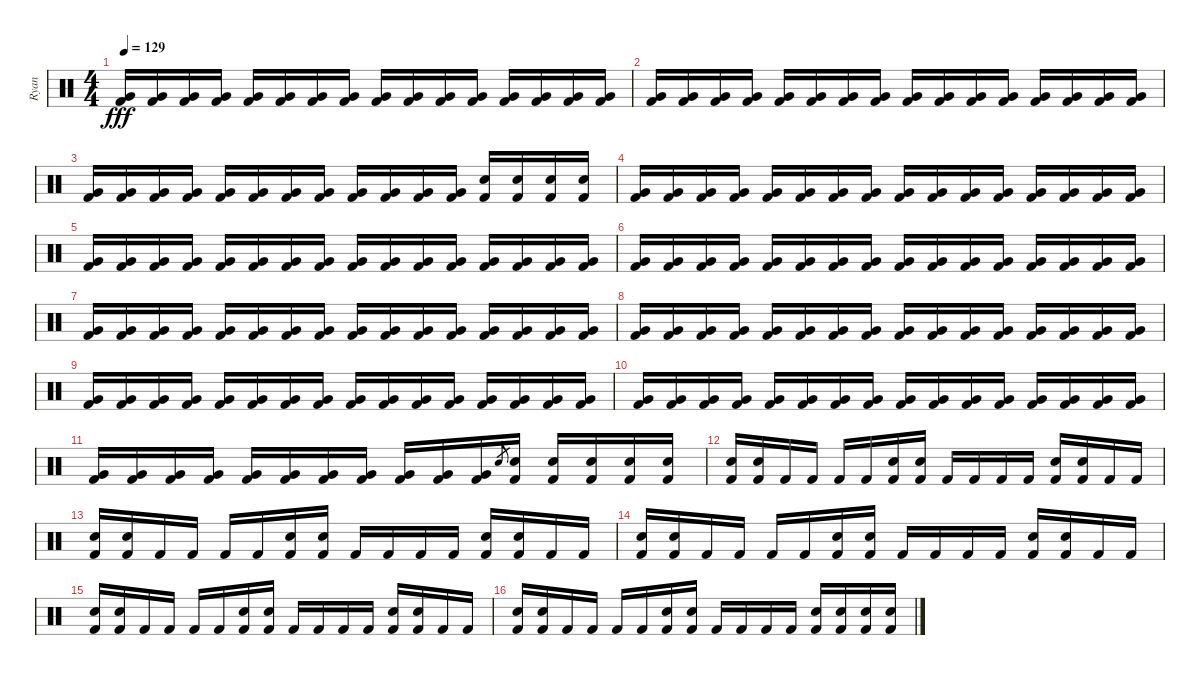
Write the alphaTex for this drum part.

\track ("Ryan" "Ryan") {instrument percussion}
\staff {score}
\articulation defaults
\ts (4 4)
\tempo 129
\clef neutral
\ks c
("Very Low Tom (hit)" "Kick (hit) 2").16{dy fff} ("Very Low Tom (hit)" "Kick (hit) 2").16 ("Very Low Tom (hit)" "Kick (hit) 2").16 ("Very Low Tom (hit)" "Kick (hit) 2").16 ("Very Low Tom (hit)" "Kick (hit) 2").16 ("Very Low Tom (hit)" "Kick (hit) 2").16 ("Very Low Tom (hit)" "Kick (hit) 2").16 ("Very Low Tom (hit)" "Kick (hit) 2").16 ("Very Low Tom (hit)" "Kick (hit) 2").16 ("Very Low Tom (hit)" "Kick (hit) 2").16 ("Very Low Tom (hit)" "Kick (hit) 2").16 ("Very Low Tom (hit)" "Kick (hit) 2").16 ("Very Low Tom (hit)" "Kick (hit) 2").16 ("Very Low Tom (hit)" "Kick (hit) 2").16 ("Very Low Tom (hit)" "Kick (hit) 2").16 ("Very Low Tom (hit)" "Kick (hit) 2").16 |
("Very Low Tom (hit)" "Kick (hit) 2").16 ("Very Low Tom (hit)" "Kick (hit) 2").16 ("Very Low Tom (hit)" "Kick (hit) 2").16 ("Very Low Tom (hit)" "Kick (hit) 2").16 ("Very Low Tom (hit)" "Kick (hit) 2").16 ("Very Low Tom (hit)" "Kick (hit) 2").16 ("Very Low Tom (hit)" "Kick (hit) 2").16 ("Very Low Tom (hit)" "Kick (hit) 2").16 ("Very Low Tom (hit)" "Kick (hit) 2").16 ("Very Low Tom (hit)" "Kick (hit) 2").16 ("Very Low Tom (hit)" "Kick (hit) 2").16 ("Very Low Tom (hit)" "Kick (hit) 2").16 ("Very Low Tom (hit)" "Kick (hit) 2").16 ("Very Low Tom (hit)" "Kick (hit) 2").16 ("Very Low Tom (hit)" "Kick (hit) 2").16 ("Very Low Tom (hit)" "Kick (hit) 2").16 |
("Very Low Tom (hit)" "Kick (hit) 2").16 ("Very Low Tom (hit)" "Kick (hit) 2").16 ("Very Low Tom (hit)" "Kick (hit) 2").16 ("Very Low Tom (hit)" "Kick (hit) 2").16 ("Very Low Tom (hit)" "Kick (hit) 2").16 ("Very Low Tom (hit)" "Kick (hit) 2").16 ("Very Low Tom (hit)" "Kick (hit) 2").16 ("Very Low Tom (hit)" "Kick (hit) 2").16 ("Very Low Tom (hit)" "Kick (hit) 2").16 ("Very Low Tom (hit)" "Kick (hit) 2").16 ("Very Low Tom (hit)" "Kick (hit) 2").16 ("Very Low Tom (hit)" "Kick (hit) 2").16 ("Electric Snare (hit)" "Kick (hit) 2").16 ("Electric Snare (hit)" "Kick (hit) 2").16 ("Electric Snare (hit)" "Kick (hit) 2").16 ("Electric Snare (hit)" "Kick (hit) 2").16 |
("Very Low Tom (hit)" "Kick (hit) 2").16 ("Very Low Tom (hit)" "Kick (hit) 2").16 ("Very Low Tom (hit)" "Kick (hit) 2").16 ("Very Low Tom (hit)" "Kick (hit) 2").16 ("Very Low Tom (hit)" "Kick (hit) 2").16 ("Very Low Tom (hit)" "Kick (hit) 2").16 ("Very Low Tom (hit)" "Kick (hit) 2").16 ("Very Low Tom (hit)" "Kick (hit) 2").16 ("Very Low Tom (hit)" "Kick (hit) 2").16 ("Very Low Tom (hit)" "Kick (hit) 2").16 ("Very Low Tom (hit)" "Kick (hit) 2").16 ("Very Low Tom (hit)" "Kick (hit) 2").16 ("Very Low Tom (hit)" "Kick (hit) 2").16 ("Very Low Tom (hit)" "Kick (hit) 2").16 ("Very Low Tom (hit)" "Kick (hit) 2").16 ("Very Low Tom (hit)" "Kick (hit) 2").16 |
("Very Low Tom (hit)" "Kick (hit) 2").16 ("Very Low Tom (hit)" "Kick (hit) 2").16 ("Very Low Tom (hit)" "Kick (hit) 2").16 ("Very Low Tom (hit)" "Kick (hit) 2").16 ("Very Low Tom (hit)" "Kick (hit) 2").16 ("Very Low Tom (hit)" "Kick (hit) 2").16 ("Very Low Tom (hit)" "Kick (hit) 2").16 ("Very Low Tom (hit)" "Kick (hit) 2").16 ("Very Low Tom (hit)" "Kick (hit) 2").16 ("Very Low Tom (hit)" "Kick (hit) 2").16 ("Very Low Tom (hit)" "Kick (hit) 2").16 ("Very Low Tom (hit)" "Kick (hit) 2").16 ("Very Low Tom (hit)" "Kick (hit) 2").16 ("Very Low Tom (hit)" "Kick (hit) 2").16 ("Very Low Tom (hit)" "Kick (hit) 2").16 ("Very Low Tom (hit)" "Kick (hit) 2").16 |
("Very Low Tom (hit)" "Kick (hit) 2").16 ("Very Low Tom (hit)" "Kick (hit) 2").16 ("Very Low Tom (hit)" "Kick (hit) 2").16 ("Very Low Tom (hit)" "Kick (hit) 2").16 ("Very Low Tom (hit)" "Kick (hit) 2").16 ("Very Low Tom (hit)" "Kick (hit) 2").16 ("Very Low Tom (hit)" "Kick (hit) 2").16 ("Very Low Tom (hit)" "Kick (hit) 2").16 ("Very Low Tom (hit)" "Kick (hit) 2").16 ("Very Low Tom (hit)" "Kick (hit) 2").16 ("Very Low Tom (hit)" "Kick (hit) 2").16 ("Very Low Tom (hit)" "Kick (hit) 2").16 ("Very Low Tom (hit)" "Kick (hit) 2").16 ("Very Low Tom (hit)" "Kick (hit) 2").16 ("Very Low Tom (hit)" "Kick (hit) 2").16 ("Very Low Tom (hit)" "Kick (hit) 2").16 |
("Very Low Tom (hit)" "Kick (hit) 2").16 ("Very Low Tom (hit)" "Kick (hit) 2").16 ("Very Low Tom (hit)" "Kick (hit) 2").16 ("Very Low Tom (hit)" "Kick (hit) 2").16 ("Very Low Tom (hit)" "Kick (hit) 2").16 ("Very Low Tom (hit)" "Kick (hit) 2").16 ("Very Low Tom (hit)" "Kick (hit) 2").16 ("Very Low Tom (hit)" "Kick (hit) 2").16 ("Very Low Tom (hit)" "Kick (hit) 2").16 ("Very Low Tom (hit)" "Kick (hit) 2").16 ("Very Low Tom (hit)" "Kick (hit) 2").16 ("Very Low Tom (hit)" "Kick (hit) 2").16 ("Very Low Tom (hit)" "Kick (hit) 2").16 ("Very Low Tom (hit)" "Kick (hit) 2").16 ("Very Low Tom (hit)" "Kick (hit) 2").16 ("Very Low Tom (hit)" "Kick (hit) 2").16 |
("Very Low Tom (hit)" "Kick (hit) 2").16 ("Very Low Tom (hit)" "Kick (hit) 2").16 ("Very Low Tom (hit)" "Kick (hit) 2").16 ("Very Low Tom (hit)" "Kick (hit) 2").16 ("Very Low Tom (hit)" "Kick (hit) 2").16 ("Very Low Tom (hit)" "Kick (hit) 2").16 ("Very Low Tom (hit)" "Kick (hit) 2").16 ("Very Low Tom (hit)" "Kick (hit) 2").16 ("Very Low Tom (hit)" "Kick (hit) 2").16 ("Very Low Tom (hit)" "Kick (hit) 2").16 ("Very Low Tom (hit)" "Kick (hit) 2").16 ("Very Low Tom (hit)" "Kick (hit) 2").16 ("Very Low Tom (hit)" "Kick (hit) 2").16 ("Very Low Tom (hit)" "Kick (hit) 2").16 ("Very Low Tom (hit)" "Kick (hit) 2").16 ("Very Low Tom (hit)" "Kick (hit) 2").16 |
("Very Low Tom (hit)" "Kick (hit) 2").16 ("Very Low Tom (hit)" "Kick (hit) 2").16 ("Very Low Tom (hit)" "Kick (hit) 2").16 ("Very Low Tom (hit)" "Kick (hit) 2").16 ("Very Low Tom (hit)" "Kick (hit) 2").16 ("Very Low Tom (hit)" "Kick (hit) 2").16 ("Very Low Tom (hit)" "Kick (hit) 2").16 ("Very Low Tom (hit)" "Kick (hit) 2").16 ("Very Low Tom (hit)" "Kick (hit) 2").16 ("Very Low Tom (hit)" "Kick (hit) 2").16 ("Very Low Tom (hit)" "Kick (hit) 2").16 ("Very Low Tom (hit)" "Kick (hit) 2").16 ("Very Low Tom (hit)" "Kick (hit) 2").16 ("Very Low Tom (hit)" "Kick (hit) 2").16 ("Very Low Tom (hit)" "Kick (hit) 2").16 ("Very Low Tom (hit)" "Kick (hit) 2").16 |
("Very Low Tom (hit)" "Kick (hit) 2").16 ("Very Low Tom (hit)" "Kick (hit) 2").16 ("Very Low Tom (hit)" "Kick (hit) 2").16 ("Very Low Tom (hit)" "Kick (hit) 2").16 ("Very Low Tom (hit)" "Kick (hit) 2").16 ("Very Low Tom (hit)" "Kick (hit) 2").16 ("Very Low Tom (hit)" "Kick (hit) 2").16 ("Very Low Tom (hit)" "Kick (hit) 2").16 ("Very Low Tom (hit)" "Kick (hit) 2").16 ("Very Low Tom (hit)" "Kick (hit) 2").16 ("Very Low Tom (hit)" "Kick (hit) 2").16 ("Very Low Tom (hit)" "Kick (hit) 2").16 ("Very Low Tom (hit)" "Kick (hit) 2").16 ("Very Low Tom (hit)" "Kick (hit) 2").16 ("Very Low Tom (hit)" "Kick (hit) 2").16 ("Very Low Tom (hit)" "Kick (hit) 2").16 |
("Very Low Tom (hit)" "Kick (hit) 2").16 ("Very Low Tom (hit)" "Kick (hit) 2").16 ("Very Low Tom (hit)" "Kick (hit) 2").16 ("Very Low Tom (hit)" "Kick (hit) 2").16 ("Very Low Tom (hit)" "Kick (hit) 2").16 ("Very Low Tom (hit)" "Kick (hit) 2").16 ("Very Low Tom (hit)" "Kick (hit) 2").16 ("Very Low Tom (hit)" "Kick (hit) 2").16 ("Very Low Tom (hit)" "Kick (hit) 2").16 ("Very Low Tom (hit)" "Kick (hit) 2").16 ("Very Low Tom (hit)" "Kick (hit) 2").16 "Electric Snare (hit)".8{gr} ("Electric Snare (hit)" "Kick (hit) 2").16 ("Electric Snare (hit)" "Kick (hit) 2").16 ("Electric Snare (hit)" "Kick (hit) 2").16 ("Electric Snare (hit)" "Kick (hit) 2").16 ("Electric Snare (hit)" "Kick (hit) 2").16 |
("Electric Snare (hit)" "Kick (hit) 2").16 ("Electric Snare (hit)" "Kick (hit) 2").16 "Kick (hit) 2".16 "Kick (hit) 2".16 "Kick (hit) 2".16 "Kick (hit) 2".16 ("Electric Snare (hit)" "Kick (hit) 2").16 ("Electric Snare (hit)" "Kick (hit) 2").16 "Kick (hit) 2".16 "Kick (hit) 2".16 "Kick (hit) 2".16 "Kick (hit) 2".16 ("Electric Snare (hit)" "Kick (hit) 2").16 ("Electric Snare (hit)" "Kick (hit) 2").16 "Kick (hit) 2".16 "Kick (hit) 2".16 |
("Electric Snare (hit)" "Kick (hit) 2").16 ("Electric Snare (hit)" "Kick (hit) 2").16 "Kick (hit) 2".16 "Kick (hit) 2".16 "Kick (hit) 2".16 "Kick (hit) 2".16 ("Electric Snare (hit)" "Kick (hit) 2").16 ("Electric Snare (hit)" "Kick (hit) 2").16 "Kick (hit) 2".16 "Kick (hit) 2".16 "Kick (hit) 2".16 "Kick (hit) 2".16 ("Electric Snare (hit)" "Kick (hit) 2").16 ("Electric Snare (hit)" "Kick (hit) 2").16 "Kick (hit) 2".16 "Kick (hit) 2".16 |
("Electric Snare (hit)" "Kick (hit) 2").16 ("Electric Snare (hit)" "Kick (hit) 2").16 "Kick (hit) 2".16 "Kick (hit) 2".16 "Kick (hit) 2".16 "Kick (hit) 2".16 ("Electric Snare (hit)" "Kick (hit) 2").16 ("Electric Snare (hit)" "Kick (hit) 2").16 "Kick (hit) 2".16 "Kick (hit) 2".16 "Kick (hit) 2".16 "Kick (hit) 2".16 ("Electric Snare (hit)" "Kick (hit) 2").16 ("Electric Snare (hit)" "Kick (hit) 2").16 "Kick (hit) 2".16 "Kick (hit) 2".16 |
("Electric Snare (hit)" "Kick (hit) 2").16 ("Electric Snare (hit)" "Kick (hit) 2").16 "Kick (hit) 2".16 "Kick (hit) 2".16 "Kick (hit) 2".16 "Kick (hit) 2".16 ("Electric Snare (hit)" "Kick (hit) 2").16 ("Electric Snare (hit)" "Kick (hit) 2").16 "Kick (hit) 2".16 "Kick (hit) 2".16 "Kick (hit) 2".16 "Kick (hit) 2".16 ("Electric Snare (hit)" "Kick (hit) 2").16 ("Electric Snare (hit)" "Kick (hit) 2").16 "Kick (hit) 2".16 "Kick (hit) 2".16 |
("Electric Snare (hit)" "Kick (hit) 2").16 ("Electric Snare (hit)" "Kick (hit) 2").16 "Kick (hit) 2".16 "Kick (hit) 2".16 "Kick (hit) 2".16 "Kick (hit) 2".16 ("Electric Snare (hit)" "Kick (hit) 2").16 ("Electric Snare (hit)" "Kick (hit) 2").16 "Kick (hit) 2".16 "Kick (hit) 2".16 "Kick (hit) 2".16 "Kick (hit) 2".16 ("Electric Snare (hit)" "Kick (hit) 2").16 ("Electric Snare (hit)" "Kick (hit) 2").16 ("Electric Snare (hit)" "Kick (hit) 2").16 ("Electric Snare (hit)" "Kick (hit) 2").16
